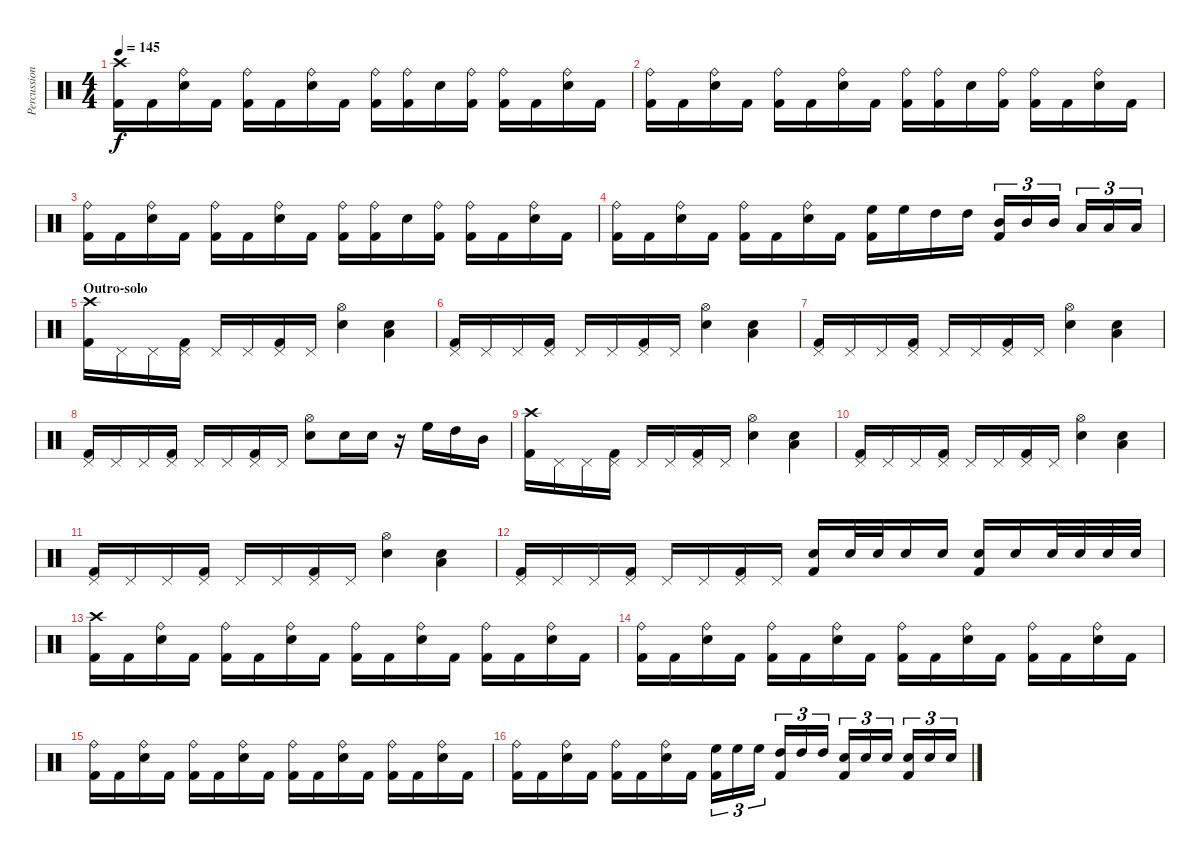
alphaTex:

\track ("Percussion" "Percussion") {instrument percussion}
\staff {score}
\articulation defaults
\ts (4 4)
\tempo 145
\clef neutral
\ks c
("Kick (hit) 2" "Crash high (hit)").16{dy f} "Kick (hit) 2".16 ("Electric Snare (hit)" "Ride (bell)").16 "Kick (hit) 2".16 ("Kick (hit) 2" "Ride (bell)").16 "Kick (hit) 2".16 ("Electric Snare (hit)" "Ride (bell)").16 "Kick (hit) 2".16 ("Kick (hit) 2" "Ride (bell)").16 ("Kick (hit) 2" "Ride (bell)").16 "Electric Snare (hit)".16 ("Kick (hit) 2" "Ride (bell)").16 ("Kick (hit) 2" "Ride (bell)").16 "Kick (hit) 2".16 ("Electric Snare (hit)" "Ride (bell)").16 "Kick (hit) 2".16 |
("Kick (hit) 2" "Ride (bell)").16 "Kick (hit) 2".16 ("Electric Snare (hit)" "Ride (bell)").16 "Kick (hit) 2".16 ("Kick (hit) 2" "Ride (bell)").16 "Kick (hit) 2".16 ("Electric Snare (hit)" "Ride (bell)").16 "Kick (hit) 2".16 ("Kick (hit) 2" "Ride (bell)").16 ("Kick (hit) 2" "Ride (bell)").16 "Electric Snare (hit)".16 ("Kick (hit) 2" "Ride (bell)").16 ("Kick (hit) 2" "Ride (bell)").16 "Kick (hit) 2".16 ("Electric Snare (hit)" "Ride (bell)").16 "Kick (hit) 2".16 |
("Kick (hit) 2" "Ride (bell)").16 "Kick (hit) 2".16 ("Electric Snare (hit)" "Ride (bell)").16 "Kick (hit) 2".16 ("Kick (hit) 2" "Ride (bell)").16 "Kick (hit) 2".16 ("Electric Snare (hit)" "Ride (bell)").16 "Kick (hit) 2".16 ("Kick (hit) 2" "Ride (bell)").16 ("Kick (hit) 2" "Ride (bell)").16 "Electric Snare (hit)".16 ("Kick (hit) 2" "Ride (bell)").16 ("Kick (hit) 2" "Ride (bell)").16 "Kick (hit) 2".16 ("Electric Snare (hit)" "Ride (bell)").16 "Kick (hit) 2".16 |
("Kick (hit) 2" "Ride (bell)").16 "Kick (hit) 2".16 ("Electric Snare (hit)" "Ride (bell)").16 "Kick (hit) 2".16 ("Kick (hit) 2" "Ride (bell)").16 "Kick (hit) 2".16 ("Electric Snare (hit)" "Ride (bell)").16 "Kick (hit) 2".16 ("High Floor Tom (hit)" "Kick (hit) 2").16 "High Floor Tom (hit)".16 "High Tom (hit)".16 "High Tom (hit)".16 ("Mid Tom (hit)" "Kick (hit) 2").16{tu (3 2)} "Mid Tom (hit)".16{tu (3 2)} "Mid Tom (hit)".16{tu (3 2)} "Low Tom (hit)".16{tu (3 2)} "Low Tom (hit)".16{tu (3 2)} "Low Tom (hit)".16{tu (3 2)} |
\section ("" "Outro-solo")
("Kick (hit) 2" "Crash high (hit)").16 "Pedal Hi-Hat (hit)".16 "Pedal Hi-Hat (hit)".16 ("Kick (hit) 2" "Pedal Hi-Hat (hit)").16 "Pedal Hi-Hat (hit)".16 "Pedal Hi-Hat (hit)".16 ("Kick (hit) 2" "Pedal Hi-Hat (hit)").16 "Pedal Hi-Hat (hit)".16 ("Electric Snare (hit)" "Hi-Hat (open)").4 ("Electric Snare (hit)" "Low Tom (hit)").4 |
("Kick (hit) 2" "Pedal Hi-Hat (hit)").16 "Pedal Hi-Hat (hit)".16 "Pedal Hi-Hat (hit)".16 ("Kick (hit) 2" "Pedal Hi-Hat (hit)").16 "Pedal Hi-Hat (hit)".16 "Pedal Hi-Hat (hit)".16 ("Kick (hit) 2" "Pedal Hi-Hat (hit)").16 "Pedal Hi-Hat (hit)".16 ("Electric Snare (hit)" "Hi-Hat (open)").4 ("Electric Snare (hit)" "Low Tom (hit)").4 |
("Kick (hit) 2" "Pedal Hi-Hat (hit)").16 "Pedal Hi-Hat (hit)".16 "Pedal Hi-Hat (hit)".16 ("Kick (hit) 2" "Pedal Hi-Hat (hit)").16 "Pedal Hi-Hat (hit)".16 "Pedal Hi-Hat (hit)".16 ("Kick (hit) 2" "Pedal Hi-Hat (hit)").16 "Pedal Hi-Hat (hit)".16 ("Electric Snare (hit)" "Hi-Hat (open)").4 ("Electric Snare (hit)" "Low Tom (hit)").4 |
("Kick (hit) 2" "Pedal Hi-Hat (hit)").16 "Pedal Hi-Hat (hit)".16 "Pedal Hi-Hat (hit)".16 ("Kick (hit) 2" "Pedal Hi-Hat (hit)").16 "Pedal Hi-Hat (hit)".16 "Pedal Hi-Hat (hit)".16 ("Kick (hit) 2" "Pedal Hi-Hat (hit)").16 "Pedal Hi-Hat (hit)".16 ("Electric Snare (hit)" "Hi-Hat (open)").8 "Electric Snare (hit)".16 "Electric Snare (hit)".16 r.16 "High Floor Tom (hit)".16 "High Tom (hit)".16 "Mid Tom (hit)".16 |
("Kick (hit) 2" "Crash high (hit)").16 "Pedal Hi-Hat (hit)".16 "Pedal Hi-Hat (hit)".16 ("Kick (hit) 2" "Pedal Hi-Hat (hit)").16 "Pedal Hi-Hat (hit)".16 "Pedal Hi-Hat (hit)".16 ("Kick (hit) 2" "Pedal Hi-Hat (hit)").16 "Pedal Hi-Hat (hit)".16 ("Electric Snare (hit)" "Hi-Hat (open)").4 ("Electric Snare (hit)" "Low Tom (hit)").4 |
("Kick (hit) 2" "Pedal Hi-Hat (hit)").16 "Pedal Hi-Hat (hit)".16 "Pedal Hi-Hat (hit)".16 ("Kick (hit) 2" "Pedal Hi-Hat (hit)").16 "Pedal Hi-Hat (hit)".16 "Pedal Hi-Hat (hit)".16 ("Kick (hit) 2" "Pedal Hi-Hat (hit)").16 "Pedal Hi-Hat (hit)".16 ("Electric Snare (hit)" "Hi-Hat (open)").4 ("Electric Snare (hit)" "Low Tom (hit)").4 |
("Kick (hit) 2" "Pedal Hi-Hat (hit)").16 "Pedal Hi-Hat (hit)".16 "Pedal Hi-Hat (hit)".16 ("Kick (hit) 2" "Pedal Hi-Hat (hit)").16 "Pedal Hi-Hat (hit)".16 "Pedal Hi-Hat (hit)".16 ("Kick (hit) 2" "Pedal Hi-Hat (hit)").16 "Pedal Hi-Hat (hit)".16 ("Electric Snare (hit)" "Hi-Hat (open)").4 ("Electric Snare (hit)" "Low Tom (hit)").4 |
("Kick (hit) 2" "Pedal Hi-Hat (hit)").16 "Pedal Hi-Hat (hit)".16 "Pedal Hi-Hat (hit)".16 ("Kick (hit) 2" "Pedal Hi-Hat (hit)").16 "Pedal Hi-Hat (hit)".16 "Pedal Hi-Hat (hit)".16 ("Kick (hit) 2" "Pedal Hi-Hat (hit)").16 "Pedal Hi-Hat (hit)".16 ("Electric Snare (hit)" "Kick (hit) 2").16 "Electric Snare (hit)".32 "Electric Snare (hit)".32 "Electric Snare (hit)".16 "Electric Snare (hit)".16 ("Electric Snare (hit)" "Kick (hit) 2").16 "Electric Snare (hit)".16 "Electric Snare (hit)".32 "Electric Snare (hit)".32 "Electric Snare (hit)".32 "Electric Snare (hit)".32 |
("Kick (hit) 2" "Crash high (hit)").16 "Kick (hit) 2".16 ("Electric Snare (hit)" "Ride (bell)").16 "Kick (hit) 2".16 ("Kick (hit) 2" "Ride (bell)").16 "Kick (hit) 2".16 ("Electric Snare (hit)" "Ride (bell)").16 "Kick (hit) 2".16 ("Kick (hit) 2" "Ride (bell)").16 "Kick (hit) 2".16 ("Electric Snare (hit)" "Ride (bell)").16 "Kick (hit) 2".16 ("Kick (hit) 2" "Ride (bell)").16 "Kick (hit) 2".16 ("Electric Snare (hit)" "Ride (bell)").16 "Kick (hit) 2".16 |
("Kick (hit) 2" "Ride (bell)").16 "Kick (hit) 2".16 ("Electric Snare (hit)" "Ride (bell)").16 "Kick (hit) 2".16 ("Kick (hit) 2" "Ride (bell)").16 "Kick (hit) 2".16 ("Electric Snare (hit)" "Ride (bell)").16 "Kick (hit) 2".16 ("Kick (hit) 2" "Ride (bell)").16 "Kick (hit) 2".16 ("Electric Snare (hit)" "Ride (bell)").16 "Kick (hit) 2".16 ("Kick (hit) 2" "Ride (bell)").16 "Kick (hit) 2".16 ("Electric Snare (hit)" "Ride (bell)").16 "Kick (hit) 2".16 |
("Kick (hit) 2" "Ride (bell)").16 "Kick (hit) 2".16 ("Electric Snare (hit)" "Ride (bell)").16 "Kick (hit) 2".16 ("Kick (hit) 2" "Ride (bell)").16 "Kick (hit) 2".16 ("Electric Snare (hit)" "Ride (bell)").16 "Kick (hit) 2".16 ("Kick (hit) 2" "Ride (bell)").16 "Kick (hit) 2".16 ("Electric Snare (hit)" "Ride (bell)").16 "Kick (hit) 2".16 ("Kick (hit) 2" "Ride (bell)").16 "Kick (hit) 2".16 ("Electric Snare (hit)" "Ride (bell)").16 "Kick (hit) 2".16 |
("Kick (hit) 2" "Ride (bell)").16 "Kick (hit) 2".16 ("Electric Snare (hit)" "Ride (bell)").16 "Kick (hit) 2".16 ("Kick (hit) 2" "Ride (bell)").16 "Kick (hit) 2".16 ("Electric Snare (hit)" "Ride (bell)").16 "Kick (hit) 2".16 ("High Floor Tom (hit)" "Kick (hit) 2").16{tu (3 2)} "High Floor Tom (hit)".16{tu (3 2)} "High Floor Tom (hit)".16{tu (3 2)} ("High Tom (hit)" "Kick (hit) 2").16{tu (3 2)} "High Tom (hit)".16{tu (3 2)} "High Tom (hit)".16{tu (3 2)} ("Electric Snare (hit)" "Kick (hit) 2").16{tu (3 2)} "Electric Snare (hit)".16{tu (3 2)} "Electric Snare (hit)".16{tu (3 2)} ("Electric Snare (hit)" "Kick (hit) 2").16{tu (3 2)} "Electric Snare (hit)".16{tu (3 2)} "Electric Snare (hit)".16{tu (3 2)}
